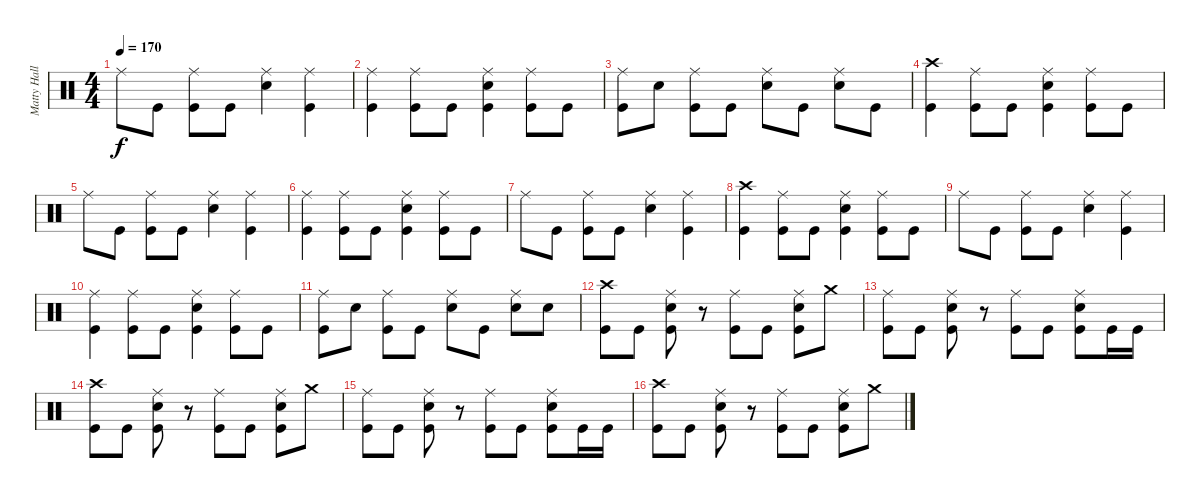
\track ("Matty Hallick - Drums" "Matty Hall") {instrument percussion}
\staff {score}
\articulation defaults
\ts (4 4)
\tempo 170
\clef neutral
\ks c "Ride (middle)".8{dy f} "Kick (hit)".8
("Ride (middle)" "Kick (hit)").8 "Kick (hit)".8 ("Ride (middle)" "Snare (hit) 2").4 ("Ride (middle)" "Kick (hit)").4 |
("Ride (middle)" "Kick (hit)").4 ("Ride (middle)" "Kick (hit)").8 "Kick (hit)".8 ("Ride (middle)" "Snare (hit) 2" "Kick (hit)").4 ("Ride (middle)" "Kick (hit)").8 "Kick (hit)".8 |
("Ride (middle)" "Kick (hit)").8 "Snare (hit) 2".8 ("Ride (middle)" "Kick (hit)").8 "Kick (hit)".8 ("Ride (middle)" "Snare (hit) 2").8 "Kick (hit)".8 ("Ride (middle)" "Snare (hit) 2").8 "Kick (hit)".8 |
("Crash high (hit)" "Kick (hit)").4 ("Ride (middle)" "Kick (hit)").8 "Kick (hit)".8 ("Ride (middle)" "Snare (hit) 2" "Kick (hit)").4 ("Ride (middle)" "Kick (hit)").8 "Kick (hit)".8 |
"Ride (middle)".8 "Kick (hit)".8 ("Ride (middle)" "Kick (hit)").8 "Kick (hit)".8 ("Ride (middle)" "Snare (hit) 2").4 ("Ride (middle)" "Kick (hit)").4 |
("Ride (middle)" "Kick (hit)").4 ("Ride (middle)" "Kick (hit)").8 "Kick (hit)".8 ("Ride (middle)" "Snare (hit) 2" "Kick (hit)").4 ("Ride (middle)" "Kick (hit)").8 "Kick (hit)".8 |
"Ride (middle)".8 "Kick (hit)".8 ("Ride (middle)" "Kick (hit)").8 "Kick (hit)".8 ("Ride (middle)" "Snare (hit) 2").4 ("Ride (middle)" "Kick (hit)").4 |
("Crash high (hit)" "Kick (hit)").4 ("Ride (middle)" "Kick (hit)").8 "Kick (hit)".8 ("Ride (middle)" "Snare (hit) 2" "Kick (hit)").4 ("Ride (middle)" "Kick (hit)").8 "Kick (hit)".8 |
"Ride (middle)".8 "Kick (hit)".8 ("Ride (middle)" "Kick (hit)").8 "Kick (hit)".8 ("Ride (middle)" "Snare (hit) 2").4 ("Ride (middle)" "Kick (hit)").4 |
("Ride (middle)" "Kick (hit)").4 ("Ride (middle)" "Kick (hit)").8 "Kick (hit)".8 ("Ride (middle)" "Snare (hit) 2" "Kick (hit)").4 ("Ride (middle)" "Kick (hit)").8 "Kick (hit)".8 |
("Ride (middle)" "Kick (hit)").8 "Snare (hit) 2".8 ("Ride (middle)" "Kick (hit)").8 "Kick (hit)".8 ("Ride (middle)" "Snare (hit) 2").8 "Kick (hit)".8 ("Ride (middle)" "Snare (hit) 2").8 "Snare (hit) 2".8 |
("Crash high (hit)" "Kick (hit)").8 "Kick (hit)".8 ("Ride (middle)" "Snare (hit) 2" "Kick (hit)").8 r.8 ("Ride (middle)" "Kick (hit)").8 "Kick (hit)".8 ("Ride (middle)" "Snare (hit) 2" "Kick (hit)").8 "Crash medium (hit)".8 |
("Ride (middle)" "Kick (hit)").8 "Kick (hit)".8 ("Ride (middle)" "Snare (hit) 2" "Kick (hit)").8 r.8 ("Ride (middle)" "Kick (hit)").8 "Kick (hit)".8 ("Ride (middle)" "Snare (hit) 2" "Kick (hit)").8 "Kick (hit)".16 "Kick (hit)".16 |
("Crash high (hit)" "Kick (hit)").8 "Kick (hit)".8 ("Ride (middle)" "Snare (hit) 2" "Kick (hit)").8 r.8 ("Ride (middle)" "Kick (hit)").8 "Kick (hit)".8 ("Ride (middle)" "Snare (hit) 2" "Kick (hit)").8 "Crash medium (hit)".8 |
("Ride (middle)" "Kick (hit)").8 "Kick (hit)".8 ("Ride (middle)" "Snare (hit) 2" "Kick (hit)").8 r.8 ("Ride (middle)" "Kick (hit)").8 "Kick (hit)".8 ("Ride (middle)" "Snare (hit) 2" "Kick (hit)").8 "Kick (hit)".16 "Kick (hit)".16 |
("Crash high (hit)" "Kick (hit)").8 "Kick (hit)".8 ("Ride (middle)" "Snare (hit) 2" "Kick (hit)").8 r.8 ("Ride (middle)" "Kick (hit)").8 "Kick (hit)".8 ("Ride (middle)" "Snare (hit) 2" "Kick (hit)").8 "Crash medium (hit)".8
